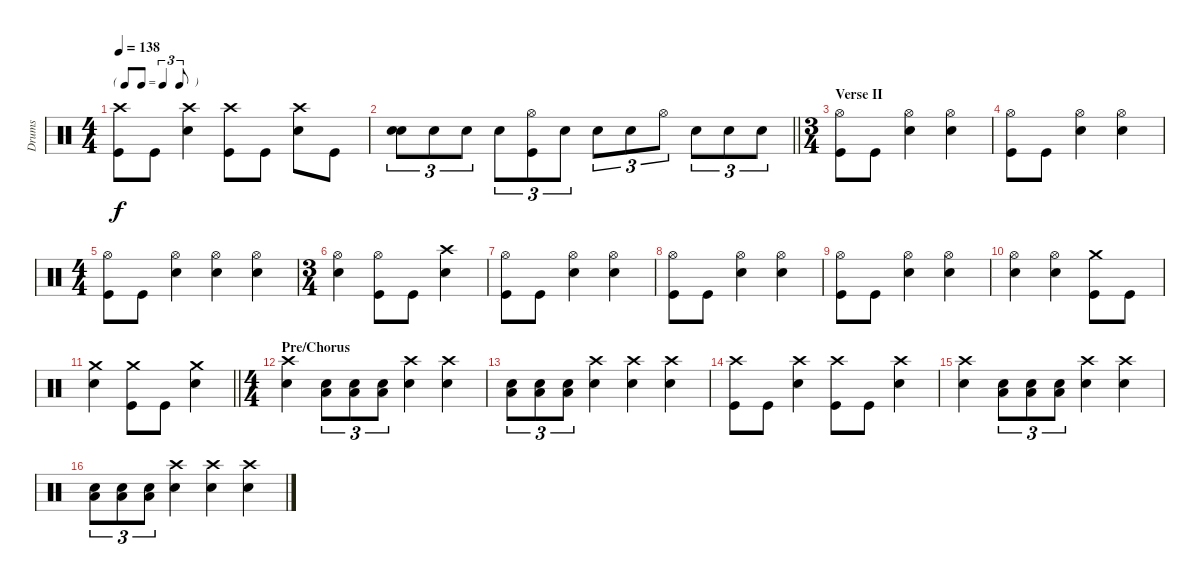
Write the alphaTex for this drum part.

\track ("Drums" "Drums") {instrument percussion}
\staff {score}
\articulation defaults
\ts (4 4)
\tf triplet8th
\tempo 138
\clef neutral
\ks c
("Crash high (hit)" "Kick (hit)").8{dy f} "Kick (hit)".8 ("Crash high (hit)" "Snare (hit) 2").4 ("Crash high (hit)" "Kick (hit)").8 "Kick (hit)".8 ("Crash high (hit)" "Snare (hit) 2").8 "Kick (hit)".8 |
\barLineRight lightlight
("Snare (hit) 2" "Snare (hit) 2").8{tu (3 2) bd 240} "Snare (hit) 2".8{tu (3 2)} "Snare (hit) 2".8{tu (3 2)} "Snare (hit) 2".8{tu (3 2)} ("Hi-Hat (open)" "Kick (hit)").8{tu (3 2)} "Snare (hit) 2".8{tu (3 2)} "Snare (hit) 2".8{tu (3 2)} "Snare (hit) 2".8{tu (3 2)} "Hi-Hat (open)".8{tu (3 2)} "Snare (hit) 2".8{tu (3 2)} "Snare (hit) 2".8{tu (3 2)} "Snare (hit) 2".8{tu (3 2)} |
\ts (3 4)
\section ("" "Verse II")
("Hi-Hat (open)" "Kick (hit)").8 "Kick (hit)".8 ("Hi-Hat (open)" "Snare (hit) 2").4 ("Hi-Hat (open)" "Snare (hit) 2").4 |
("Hi-Hat (open)" "Kick (hit)").8 "Kick (hit)".8 ("Hi-Hat (open)" "Snare (hit) 2").4 ("Hi-Hat (open)" "Snare (hit) 2").4 |
\ts (4 4)
("Hi-Hat (open)" "Kick (hit)").8 "Kick (hit)".8 ("Hi-Hat (open)" "Snare (hit) 2").4 ("Hi-Hat (open)" "Snare (hit) 2").4 ("Hi-Hat (open)" "Snare (hit) 2").4 |
\ts (3 4)
("Hi-Hat (open)" "Snare (hit) 2").4 ("Hi-Hat (open)" "Kick (hit)").8 "Kick (hit)".8 ("Crash high (hit)" "Snare (hit) 2").4 |
("Hi-Hat (open)" "Kick (hit)").8 "Kick (hit)".8 ("Hi-Hat (open)" "Snare (hit) 2").4 ("Hi-Hat (open)" "Snare (hit) 2").4 |
("Hi-Hat (open)" "Kick (hit)").8 "Kick (hit)".8 ("Hi-Hat (open)" "Snare (hit) 2").4 ("Hi-Hat (open)" "Snare (hit) 2").4 |
("Hi-Hat (open)" "Kick (hit)").8 "Kick (hit)".8 ("Hi-Hat (open)" "Snare (hit) 2").4 ("Hi-Hat (open)" "Snare (hit) 2").4 |
("Hi-Hat (open)" "Snare (hit) 2").4 ("Hi-Hat (open)" "Snare (hit) 2").4 ("Crash medium (hit)" "Kick (hit)").8 "Kick (hit)".8 |
\barLineRight lightlight
("Crash medium (hit)" "Snare (hit) 2").4 ("Crash medium (hit)" "Kick (hit)").8 "Kick (hit)".8 ("Crash medium (hit)" "Snare (hit) 2").4 |
\ts (4 4)
\section ("" "Pre/Chorus")
("Crash high (hit)" "Snare (hit) 2").4 ("Low Tom (hit)" "Snare (hit) 2").8{tu (3 2)} ("Low Tom (hit)" "Snare (hit) 2").8{tu (3 2)} ("Low Tom (hit)" "Snare (hit) 2").8{tu (3 2)} ("Crash high (hit)" "Snare (hit) 2").4 ("Crash high (hit)" "Snare (hit) 2").4 |
("Low Tom (hit)" "Snare (hit) 2").8{tu (3 2)} ("Low Tom (hit)" "Snare (hit) 2").8{tu (3 2)} ("Low Tom (hit)" "Snare (hit) 2").8{tu (3 2)} ("Crash high (hit)" "Snare (hit) 2").4 ("Crash high (hit)" "Snare (hit) 2").4 ("Crash high (hit)" "Snare (hit) 2").4 |
("Crash high (hit)" "Kick (hit)").8 "Kick (hit)".8 ("Crash high (hit)" "Snare (hit) 2").4 ("Crash high (hit)" "Kick (hit)").8 "Kick (hit)".8 ("Crash high (hit)" "Snare (hit) 2").4 |
("Crash high (hit)" "Snare (hit) 2").4 ("Low Tom (hit)" "Snare (hit) 2").8{tu (3 2)} ("Low Tom (hit)" "Snare (hit) 2").8{tu (3 2)} ("Low Tom (hit)" "Snare (hit) 2").8{tu (3 2)} ("Crash high (hit)" "Snare (hit) 2").4 ("Crash high (hit)" "Snare (hit) 2").4 |
("Low Tom (hit)" "Snare (hit) 2").8{tu (3 2)} ("Low Tom (hit)" "Snare (hit) 2").8{tu (3 2)} ("Low Tom (hit)" "Snare (hit) 2").8{tu (3 2)} ("Crash high (hit)" "Snare (hit) 2").4 ("Crash high (hit)" "Snare (hit) 2").4 ("Crash high (hit)" "Snare (hit) 2").4
